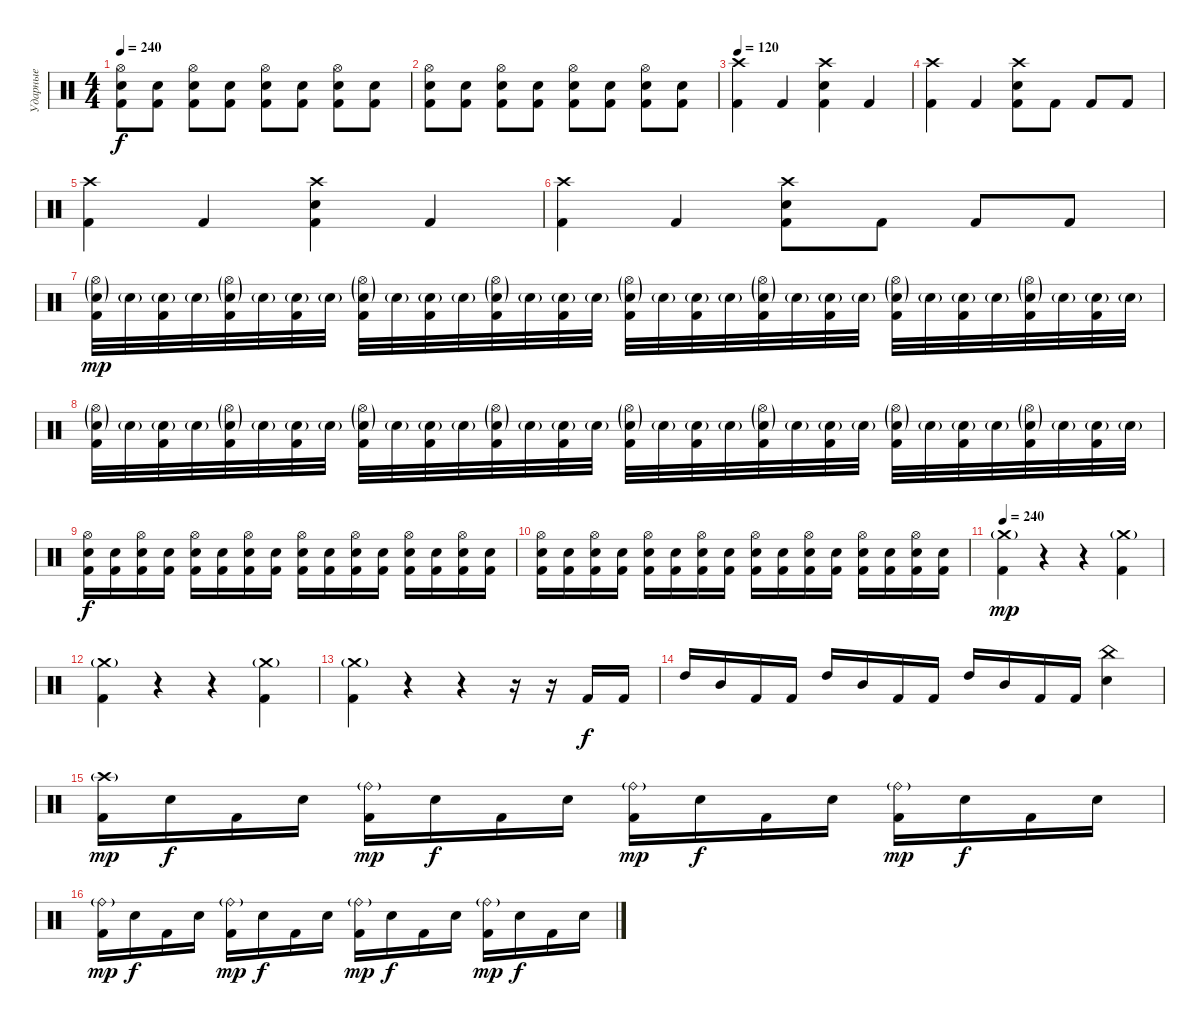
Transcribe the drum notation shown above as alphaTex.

\track ("Ударные" "Ударные") {instrument percussion}
\staff {score}
\articulation defaults
\ts (4 4)
\tempo 240
\clef neutral
\ks c
("Hi-Hat (open)" "Electric Snare (hit)" "Kick (hit) 2").8{dy f} ("Electric Snare (hit)" "Kick (hit) 2").8 ("Hi-Hat (open)" "Electric Snare (hit)" "Kick (hit) 2").8 ("Electric Snare (hit)" "Kick (hit) 2").8 ("Hi-Hat (open)" "Electric Snare (hit)" "Kick (hit) 2").8 ("Electric Snare (hit)" "Kick (hit) 2").8 ("Hi-Hat (open)" "Electric Snare (hit)" "Kick (hit) 2").8 ("Electric Snare (hit)" "Kick (hit) 2").8 |
("Hi-Hat (open)" "Electric Snare (hit)" "Kick (hit) 2").8 ("Electric Snare (hit)" "Kick (hit) 2").8 ("Hi-Hat (open)" "Electric Snare (hit)" "Kick (hit) 2").8 ("Electric Snare (hit)" "Kick (hit) 2").8 ("Hi-Hat (open)" "Electric Snare (hit)" "Kick (hit) 2").8 ("Electric Snare (hit)" "Kick (hit) 2").8 ("Hi-Hat (open)" "Electric Snare (hit)" "Kick (hit) 2").8 ("Electric Snare (hit)" "Kick (hit) 2").8 |
\tempo 120
("Crash high (hit)" "Kick (hit) 2").4 "Kick (hit) 2".4 ("Crash high (hit)" "Electric Snare (hit)" "Kick (hit) 2").4 "Kick (hit) 2".4 |
("Crash high (hit)" "Kick (hit) 2").4 "Kick (hit) 2".4 ("Crash high (hit)" "Electric Snare (hit)" "Kick (hit) 2").8 "Kick (hit) 2".8 "Kick (hit) 2".8 "Kick (hit) 2".8 |
("Crash high (hit)" "Kick (hit) 2").4 "Kick (hit) 2".4 ("Crash high (hit)" "Electric Snare (hit)" "Kick (hit) 2").4 "Kick (hit) 2".4 |
("Crash high (hit)" "Kick (hit) 2").4 "Kick (hit) 2".4 ("Crash high (hit)" "Electric Snare (hit)" "Kick (hit) 2").8 "Kick (hit) 2".8 "Kick (hit) 2".8 "Kick (hit) 2".8 |
("Hi-Hat (open)"{g} "Electric Snare (hit)"{g} "Kick (hit) 2").32{dy mp} "Electric Snare (hit)"{g}.32 ("Electric Snare (hit)"{g} "Kick (hit) 2").32 "Electric Snare (hit)"{g}.32 ("Hi-Hat (open)"{g} "Electric Snare (hit)"{g} "Kick (hit) 2").32 "Electric Snare (hit)"{g}.32 ("Electric Snare (hit)"{g} "Kick (hit) 2").32 "Electric Snare (hit)"{g}.32 ("Hi-Hat (open)"{g} "Electric Snare (hit)"{g} "Kick (hit) 2").32 "Electric Snare (hit)"{g}.32 ("Electric Snare (hit)"{g} "Kick (hit) 2").32 "Electric Snare (hit)"{g}.32 ("Hi-Hat (open)"{g} "Electric Snare (hit)"{g} "Kick (hit) 2").32 "Electric Snare (hit)"{g}.32 ("Electric Snare (hit)"{g} "Kick (hit) 2").32 "Electric Snare (hit)"{g}.32 ("Hi-Hat (open)"{g} "Electric Snare (hit)"{g} "Kick (hit) 2").32 "Electric Snare (hit)"{g}.32 ("Electric Snare (hit)"{g} "Kick (hit) 2").32 "Electric Snare (hit)"{g}.32 ("Hi-Hat (open)"{g} "Electric Snare (hit)"{g} "Kick (hit) 2").32 "Electric Snare (hit)"{g}.32 ("Electric Snare (hit)"{g} "Kick (hit) 2").32 "Electric Snare (hit)"{g}.32 ("Hi-Hat (open)"{g} "Electric Snare (hit)"{g} "Kick (hit) 2").32 "Electric Snare (hit)"{g}.32 ("Electric Snare (hit)"{g} "Kick (hit) 2").32 "Electric Snare (hit)"{g}.32 ("Hi-Hat (open)"{g} "Electric Snare (hit)"{g} "Kick (hit) 2").32 "Electric Snare (hit)"{g}.32 ("Electric Snare (hit)"{g} "Kick (hit) 2").32 "Electric Snare (hit)"{g}.32 |
("Hi-Hat (open)"{g} "Electric Snare (hit)"{g} "Kick (hit) 2").32 "Electric Snare (hit)"{g}.32 ("Electric Snare (hit)"{g} "Kick (hit) 2").32 "Electric Snare (hit)"{g}.32 ("Hi-Hat (open)"{g} "Electric Snare (hit)"{g} "Kick (hit) 2").32 "Electric Snare (hit)"{g}.32 ("Electric Snare (hit)"{g} "Kick (hit) 2").32 "Electric Snare (hit)"{g}.32 ("Hi-Hat (open)"{g} "Electric Snare (hit)"{g} "Kick (hit) 2").32 "Electric Snare (hit)"{g}.32 ("Electric Snare (hit)"{g} "Kick (hit) 2").32 "Electric Snare (hit)"{g}.32 ("Hi-Hat (open)"{g} "Electric Snare (hit)"{g} "Kick (hit) 2").32 "Electric Snare (hit)"{g}.32 ("Electric Snare (hit)"{g} "Kick (hit) 2").32 "Electric Snare (hit)"{g}.32 ("Hi-Hat (open)"{g} "Electric Snare (hit)"{g} "Kick (hit) 2").32 "Electric Snare (hit)"{g}.32 ("Electric Snare (hit)"{g} "Kick (hit) 2").32 "Electric Snare (hit)"{g}.32 ("Hi-Hat (open)"{g} "Electric Snare (hit)"{g} "Kick (hit) 2").32 "Electric Snare (hit)"{g}.32 ("Electric Snare (hit)"{g} "Kick (hit) 2").32 "Electric Snare (hit)"{g}.32 ("Hi-Hat (open)"{g} "Electric Snare (hit)"{g} "Kick (hit) 2").32 "Electric Snare (hit)"{g}.32 ("Electric Snare (hit)"{g} "Kick (hit) 2").32 "Electric Snare (hit)"{g}.32 ("Hi-Hat (open)"{g} "Electric Snare (hit)"{g} "Kick (hit) 2").32 "Electric Snare (hit)"{g}.32 ("Electric Snare (hit)"{g} "Kick (hit) 2").32 "Electric Snare (hit)"{g}.32 |
("Hi-Hat (open)" "Electric Snare (hit)" "Kick (hit) 2").16{dy f} ("Electric Snare (hit)" "Kick (hit) 2").16 ("Hi-Hat (open)" "Electric Snare (hit)" "Kick (hit) 2").16 ("Electric Snare (hit)" "Kick (hit) 2").16 ("Hi-Hat (open)" "Electric Snare (hit)" "Kick (hit) 2").16 ("Electric Snare (hit)" "Kick (hit) 2").16 ("Hi-Hat (open)" "Electric Snare (hit)" "Kick (hit) 2").16 ("Electric Snare (hit)" "Kick (hit) 2").16 ("Hi-Hat (open)" "Electric Snare (hit)" "Kick (hit) 2").16 ("Electric Snare (hit)" "Kick (hit) 2").16 ("Hi-Hat (open)" "Electric Snare (hit)" "Kick (hit) 2").16 ("Electric Snare (hit)" "Kick (hit) 2").16 ("Hi-Hat (open)" "Electric Snare (hit)" "Kick (hit) 2").16 ("Electric Snare (hit)" "Kick (hit) 2").16 ("Hi-Hat (open)" "Electric Snare (hit)" "Kick (hit) 2").16 ("Electric Snare (hit)" "Kick (hit) 2").16 |
("Hi-Hat (open)" "Electric Snare (hit)" "Kick (hit) 2").16 ("Electric Snare (hit)" "Kick (hit) 2").16 ("Hi-Hat (open)" "Electric Snare (hit)" "Kick (hit) 2").16 ("Electric Snare (hit)" "Kick (hit) 2").16 ("Hi-Hat (open)" "Electric Snare (hit)" "Kick (hit) 2").16 ("Electric Snare (hit)" "Kick (hit) 2").16 ("Hi-Hat (open)" "Electric Snare (hit)" "Kick (hit) 2").16 ("Electric Snare (hit)" "Kick (hit) 2").16 ("Hi-Hat (open)" "Electric Snare (hit)" "Kick (hit) 2").16 ("Electric Snare (hit)" "Kick (hit) 2").16 ("Hi-Hat (open)" "Electric Snare (hit)" "Kick (hit) 2").16 ("Electric Snare (hit)" "Kick (hit) 2").16 ("Hi-Hat (open)" "Electric Snare (hit)" "Kick (hit) 2").16 ("Electric Snare (hit)" "Kick (hit) 2").16 ("Hi-Hat (open)" "Electric Snare (hit)" "Kick (hit) 2").16 ("Electric Snare (hit)" "Kick (hit) 2").16 |
\tempo 240
("Crash medium (hit)"{g} "Kick (hit) 2").4{dy mp} r.4 r.4 ("Crash medium (hit)"{g} "Kick (hit) 2").4 |
("Crash medium (hit)"{g} "Kick (hit) 2").4 r.4 r.4 ("Crash medium (hit)"{g} "Kick (hit) 2").4 |
("Crash medium (hit)"{g} "Kick (hit) 2").4 r.4 r.4 r.16 r.16 "Kick (hit) 2".16{dy f} "Kick (hit) 2".16 |
"High Tom (hit)".16 "Mid Tom (hit)".16 "Kick (hit) 2".16 "Kick (hit) 2".16 "High Tom (hit)".16 "Mid Tom (hit)".16 "Kick (hit) 2".16 "Kick (hit) 2".16 "High Tom (hit)".16 "Mid Tom (hit)".16 "Kick (hit) 2".16 "Kick (hit) 2".16 ("China (hit)" "Electric Snare (hit)").4 |
("Crash high (hit)"{g} "Kick (hit) 2").16{dy mp} "Electric Snare (hit)".16{dy f} "Kick (hit) 2".16 "Electric Snare (hit)".16 ("Ride (bell)"{g} "Kick (hit) 2").16{dy mp} "Electric Snare (hit)".16{dy f} "Kick (hit) 2".16 "Electric Snare (hit)".16 ("Ride (bell)"{g} "Kick (hit) 2").16{dy mp} "Electric Snare (hit)".16{dy f} "Kick (hit) 2".16 "Electric Snare (hit)".16 ("Ride (bell)"{g} "Kick (hit) 2").16{dy mp} "Electric Snare (hit)".16{dy f} "Kick (hit) 2".16 "Electric Snare (hit)".16 |
("Ride (bell)"{g} "Kick (hit) 2").16{dy mp} "Electric Snare (hit)".16{dy f} "Kick (hit) 2".16 "Electric Snare (hit)".16 ("Ride (bell)"{g} "Kick (hit) 2").16{dy mp} "Electric Snare (hit)".16{dy f} "Kick (hit) 2".16 "Electric Snare (hit)".16 ("Ride (bell)"{g} "Kick (hit) 2").16{dy mp} "Electric Snare (hit)".16{dy f} "Kick (hit) 2".16 "Electric Snare (hit)".16 ("Ride (bell)"{g} "Kick (hit) 2").16{dy mp} "Electric Snare (hit)".16{dy f} "Kick (hit) 2".16 "Electric Snare (hit)".16
